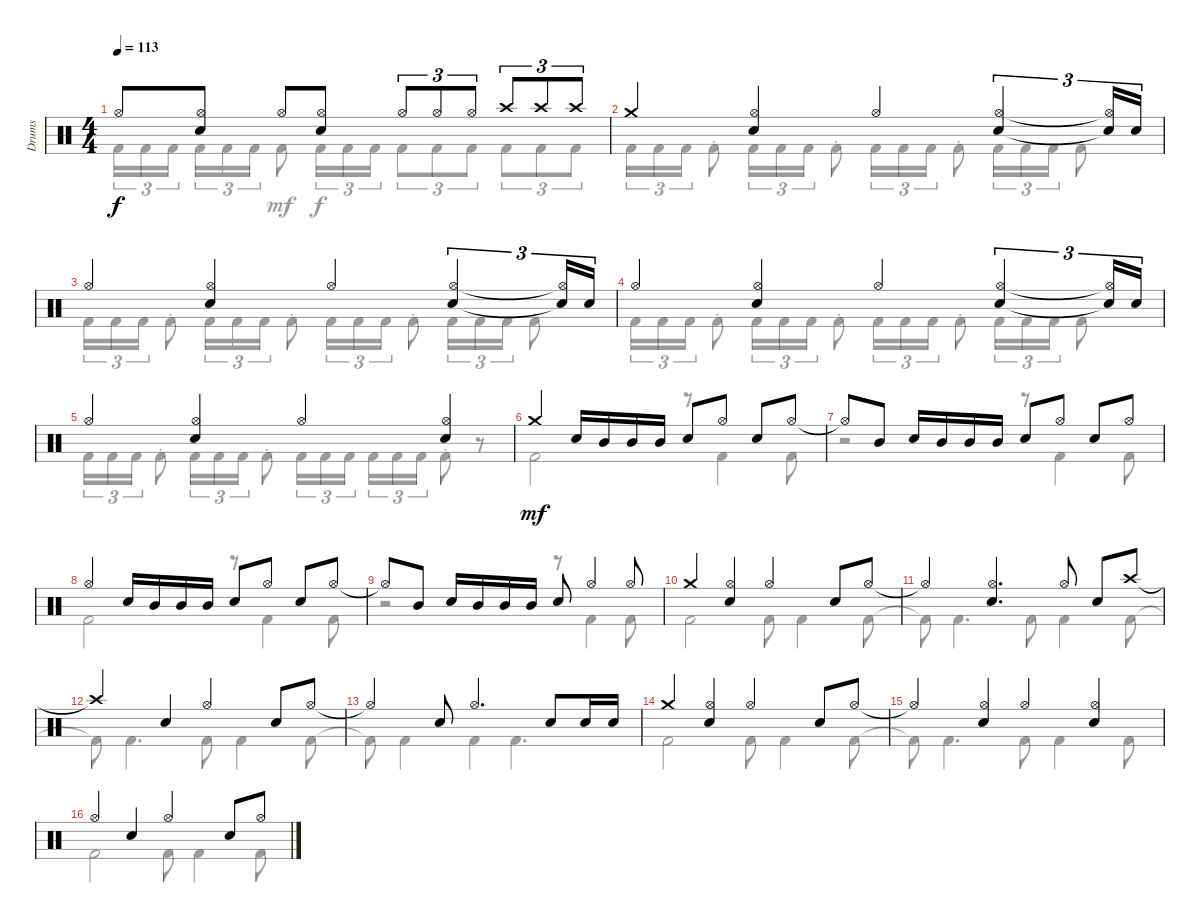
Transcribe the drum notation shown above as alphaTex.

\track ("Drums" "Drums") {instrument percussion}
\staff {score}
\articulation defaults
\voice
\ts (4 4)
\tempo 113
\clef neutral
\ks c "Hi-Hat (open)".8{dy f}
("Hi-Hat (open)" "Snare (hit) 2").8 "Hi-Hat (open)".8 ("Hi-Hat (open)" "Snare (hit) 2").8 "Hi-Hat (open)".8{tu (3 2)} "Hi-Hat (open)".8{tu (3 2)} "Hi-Hat (open)".8{tu (3 2)} "Crash high (hit)".8{tu (3 2)} "Crash high (hit)".8{tu (3 2)} "Crash high (hit)".8{tu (3 2)} |
"Crash medium (hit)".4 ("Hi-Hat (open)" "Snare (hit) 2").4 "Hi-Hat (open)".4 ("Hi-Hat (open)" "Snare (hit) 2").4{tu (3 2)} ("Hi-Hat (open)"{t} "Snare (hit) 2"{t}).16{tu (3 2)} "Snare (hit) 2".16{tu (3 2)} |
"Hi-Hat (open)".4 ("Hi-Hat (open)" "Snare (hit) 2").4 "Hi-Hat (open)".4 ("Hi-Hat (open)" "Snare (hit) 2").4{tu (3 2)} ("Hi-Hat (open)"{t} "Snare (hit) 2"{t}).16{tu (3 2)} "Snare (hit) 2".16{tu (3 2)} |
"Hi-Hat (open)".4 ("Hi-Hat (open)" "Snare (hit) 2").4 "Hi-Hat (open)".4 ("Hi-Hat (open)" "Snare (hit) 2").4{tu (3 2)} ("Hi-Hat (open)"{t} "Snare (hit) 2"{t}).16{tu (3 2)} "Snare (hit) 2".16{tu (3 2)} |
"Hi-Hat (open)".4 ("Hi-Hat (open)" "Snare (hit) 2").4 "Hi-Hat (open)".4 ("Hi-Hat (open)" "Snare (hit) 2").4 |
"Crash medium (hit)".4{dy mf} "Snare (hit) 2".16 "Mid Tom (hit)".16 "Mid Tom (hit)".16 "Mid Tom (hit)".16 "Snare (hit) 2".8 "Hi-Hat (open)".8 "Snare (hit) 2".8 "Hi-Hat (open)".8 |
"Hi-Hat (open)"{t}.8 "Mid Tom (hit)".8 "Snare (hit) 2".16 "Mid Tom (hit)".16 "Mid Tom (hit)".16 "Mid Tom (hit)".16 "Snare (hit) 2".8 "Hi-Hat (open)".8 "Snare (hit) 2".8 "Hi-Hat (open)".8 |
"Hi-Hat (open)".4 "Snare (hit) 2".16 "Mid Tom (hit)".16 "Mid Tom (hit)".16 "Mid Tom (hit)".16 "Snare (hit) 2".8 "Hi-Hat (open)".8 "Snare (hit) 2".8 "Hi-Hat (open)".8 |
"Hi-Hat (open)"{t}.8 "Mid Tom (hit)".8 "Snare (hit) 2".16 "Mid Tom (hit)".16 "Mid Tom (hit)".16 "Mid Tom (hit)".16 "Snare (hit) 2".8 "Hi-Hat (open)".4 "Hi-Hat (open)".8 |
"Crash medium (hit)".4 ("Hi-Hat (open)" "Snare (hit) 2").4 "Hi-Hat (open)".4 "Snare (hit) 2".8 "Hi-Hat (open)".8 |
"Hi-Hat (open)"{t}.4 ("Hi-Hat (open)" "Snare (hit) 2").4{d} "Hi-Hat (open)".8 "Snare (hit) 2".8 "Crash high (hit)".8 |
"Crash high (hit)"{t}.4 "Snare (hit) 2".4 "Hi-Hat (open)".4 "Snare (hit) 2".8 "Hi-Hat (open)".8 |
"Hi-Hat (open)"{t}.4 "Snare (hit) 2".8 "Hi-Hat (open)".4{d} "Snare (hit) 2".8 "Snare (hit) 2".16 "Snare (hit) 2".16 |
"Crash medium (hit)".4 ("Hi-Hat (open)" "Snare (hit) 2").4 "Hi-Hat (open)".4 "Snare (hit) 2".8 "Hi-Hat (open)".8 |
"Hi-Hat (open)"{t}.4 ("Hi-Hat (open)" "Snare (hit) 2").4 "Hi-Hat (open)".4 ("Hi-Hat (open)" "Snare (hit) 2").4 |
"Hi-Hat (open)".4 "Snare (hit) 2".4 "Hi-Hat (open)".4 "Snare (hit) 2".8 "Hi-Hat (open)".8
\voice
\clef neutral
\ottava regular
\simile none
\ks c "Kick (hit) 2".16{tu (3 2) dy f} "Kick (hit) 2".16{tu (3 2)} "Kick (hit) 2".16{tu (3 2) beam splitsecondary} "Kick (hit) 2".16{tu (3 2)} "Kick (hit) 2".16{tu (3 2)} "Kick (hit) 2".16{tu (3 2)} "Kick (hit) 2".8{dy mf} "Kick (hit) 2".16{tu (3 2) dy f} "Kick (hit) 2".16{tu (3 2)} "Kick (hit) 2".16{tu (3 2)} "Kick (hit) 2".8{tu (3 2)} "Kick (hit) 2".8{tu (3 2)} "Kick (hit) 2".8{tu (3 2)} "Kick (hit) 2".8{tu (3 2)} "Kick (hit) 2".8{tu (3 2)} "Kick (hit) 2".8{tu (3 2)}
|
"Kick (hit) 2".16{tu (3 2)} "Kick (hit) 2".16{tu (3 2)} "Kick (hit) 2".16{tu (3 2)} "Kick (hit) 2"{st}.8 "Kick (hit) 2".16{tu (3 2)} "Kick (hit) 2".16{tu (3 2)} "Kick (hit) 2".16{tu (3 2)} "Kick (hit) 2"{st}.8 "Kick (hit) 2".16{tu (3 2)} "Kick (hit) 2".16{tu (3 2)} "Kick (hit) 2".16{tu (3 2)} "Kick (hit) 2"{st}.8 "Kick (hit) 2".16{tu (3 2)} "Kick (hit) 2".16{tu (3 2)} "Kick (hit) 2".16{tu (3 2)} "Kick (hit) 2"{st}.8 |
"Kick (hit) 2".16{tu (3 2)} "Kick (hit) 2".16{tu (3 2)} "Kick (hit) 2".16{tu (3 2)} "Kick (hit) 2"{st}.8 "Kick (hit) 2".16{tu (3 2)} "Kick (hit) 2".16{tu (3 2)} "Kick (hit) 2".16{tu (3 2)} "Kick (hit) 2"{st}.8 "Kick (hit) 2".16{tu (3 2)} "Kick (hit) 2".16{tu (3 2)} "Kick (hit) 2".16{tu (3 2)} "Kick (hit) 2"{st}.8 "Kick (hit) 2".16{tu (3 2)} "Kick (hit) 2".16{tu (3 2)} "Kick (hit) 2".16{tu (3 2)} "Kick (hit) 2"{st}.8 |
"Kick (hit) 2".16{tu (3 2)} "Kick (hit) 2".16{tu (3 2)} "Kick (hit) 2".16{tu (3 2)} "Kick (hit) 2"{st}.8 "Kick (hit) 2".16{tu (3 2)} "Kick (hit) 2".16{tu (3 2)} "Kick (hit) 2".16{tu (3 2)} "Kick (hit) 2"{st}.8 "Kick (hit) 2".16{tu (3 2)} "Kick (hit) 2".16{tu (3 2)} "Kick (hit) 2".16{tu (3 2)} "Kick (hit) 2"{st}.8 "Kick (hit) 2".16{tu (3 2)} "Kick (hit) 2".16{tu (3 2)} "Kick (hit) 2".16{tu (3 2)} "Kick (hit) 2"{st}.8 |
"Kick (hit) 2".16{tu (3 2)} "Kick (hit) 2".16{tu (3 2)} "Kick (hit) 2".16{tu (3 2)} "Kick (hit) 2"{st}.8 "Kick (hit) 2".16{tu (3 2)} "Kick (hit) 2".16{tu (3 2)} "Kick (hit) 2".16{tu (3 2)} "Kick (hit) 2"{st}.8 "Kick (hit) 2".16{tu (3 2)} "Kick (hit) 2".16{tu (3 2)} "Kick (hit) 2".16{tu (3 2) beam splitsecondary} "Kick (hit) 2".16{tu (3 2)} "Kick (hit) 2".16{tu (3 2)} "Kick (hit) 2".16{tu (3 2)} "Kick (hit) 2"{st}.8 r.8 |
"Kick (hit) 2".2{dy mf} r.8 "Kick (hit) 2".4 "Kick (hit) 2".8 |
r.2 r.8 "Kick (hit) 2".4 "Kick (hit) 2".8 |
"Kick (hit) 2".2 r.8 "Kick (hit) 2".4 "Kick (hit) 2".8 |
r.2 r.8 "Kick (hit) 2".4 "Kick (hit) 2".8 |
"Kick (hit) 2".2 "Kick (hit) 2".8 "Kick (hit) 2".4 "Kick (hit) 2".8 |
"Kick (hit) 2"{t}.8 "Kick (hit) 2".4{d} "Kick (hit) 2".8 "Kick (hit) 2".4 "Kick (hit) 2".8 |
"Kick (hit) 2"{t}.8 "Kick (hit) 2".4{d} "Kick (hit) 2".8 "Kick (hit) 2".4 "Kick (hit) 2".8 |
"Kick (hit) 2"{t}.8 "Kick (hit) 2".4 "Kick (hit) 2".4 "Kick (hit) 2".4{d} |
"Kick (hit) 2".2 "Kick (hit) 2".8 "Kick (hit) 2".4 "Kick (hit) 2".8 |
"Kick (hit) 2"{t}.8 "Kick (hit) 2".4{d} "Kick (hit) 2".8 "Kick (hit) 2".4 "Kick (hit) 2".8 |
"Kick (hit) 2".2 "Kick (hit) 2".8 "Kick (hit) 2".4 "Kick (hit) 2".8
